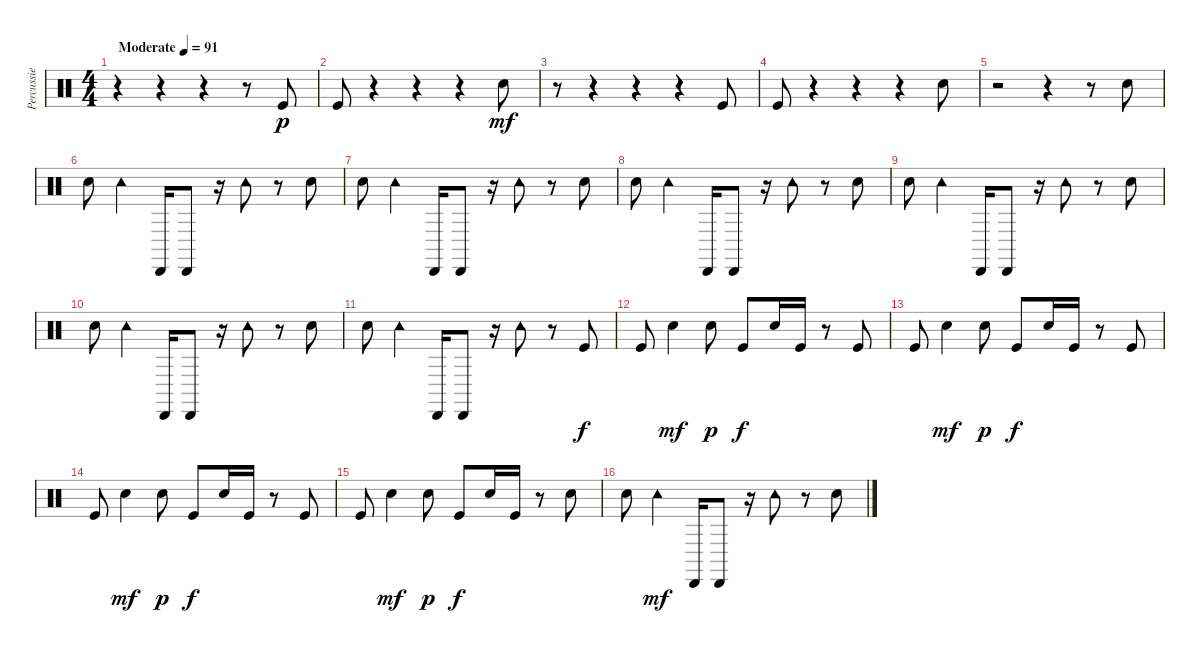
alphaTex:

\track ("Percussie" "Percussie") {instrument percussion}
\staff {score}
\articulation defaults
\ts (4 4)
\tempo (91 "Moderate")
\clef neutral
\ks c
r.4{dy p} r.4 r.4 r.8 "Kick (hit)".8 |
"Kick (hit)".8 r.4 r.4 r.4 "Hand Clap (hit)".8{dy mf} |
r.8 r.4 r.4 r.4 "Kick (hit)".8 |
"Kick (hit)".8 r.4 r.4 r.4 "Hand Clap (hit)".8 |
r.2 r.4 r.8 "Hand Clap (hit)".8 |
"Hand Clap (hit)".8 "Tambourine (hit)".4 "Cabasa (hit)".16 "Cabasa (hit)".8 r.16 "Tambourine (hit)".8 r.8 "Hand Clap (hit)".8 |
"Hand Clap (hit)".8 "Tambourine (hit)".4 "Cabasa (hit)".16 "Cabasa (hit)".8 r.16 "Tambourine (hit)".8 r.8 "Hand Clap (hit)".8 |
"Hand Clap (hit)".8 "Tambourine (hit)".4 "Cabasa (hit)".16 "Cabasa (hit)".8 r.16 "Tambourine (hit)".8 r.8 "Hand Clap (hit)".8 |
"Hand Clap (hit)".8 "Tambourine (hit)".4 "Cabasa (hit)".16 "Cabasa (hit)".8 r.16 "Tambourine (hit)".8 r.8 "Hand Clap (hit)".8 |
"Hand Clap (hit)".8 "Tambourine (hit)".4 "Cabasa (hit)".16 "Cabasa (hit)".8 r.16 "Tambourine (hit)".8 r.8 "Hand Clap (hit)".8 |
"Hand Clap (hit)".8 "Tambourine (hit)".4 "Cabasa (hit)".16 "Cabasa (hit)".8 r.16 "Tambourine (hit)".8 r.8 "Kick (hit)".8{dy f} |
"Kick (hit)".8 "Electric Snare (hit)".4{dy mf} "Electric Snare (hit)".8{dy p} "Kick (hit)".8{dy f} "Electric Snare (hit)".16 "Kick (hit)".16 r.8 "Kick (hit)".8 |
"Kick (hit)".8 "Electric Snare (hit)".4{dy mf} "Electric Snare (hit)".8{dy p} "Kick (hit)".8{dy f} "Electric Snare (hit)".16 "Kick (hit)".16 r.8 "Kick (hit)".8 |
"Kick (hit)".8 "Electric Snare (hit)".4{dy mf} "Electric Snare (hit)".8{dy p} "Kick (hit)".8{dy f} "Electric Snare (hit)".16 "Kick (hit)".16 r.8 "Kick (hit)".8 |
"Kick (hit)".8 "Electric Snare (hit)".4{dy mf} "Electric Snare (hit)".8{dy p} "Kick (hit)".8{dy f} "Electric Snare (hit)".16 "Kick (hit)".16 r.8 "Hand Clap (hit)".8 |
"Hand Clap (hit)".8 "Tambourine (hit)".4{dy mf} "Cabasa (hit)".16 "Cabasa (hit)".8 r.16 "Tambourine (hit)".8 r.8 "Hand Clap (hit)".8
